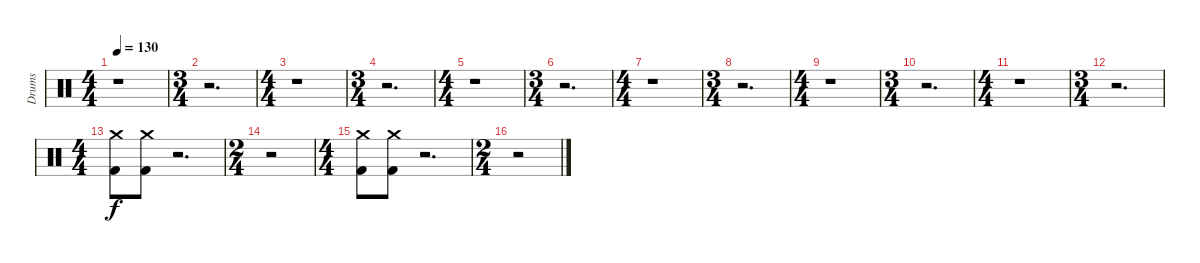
\track ("Drums" "Drums") {instrument percussion}
\staff {score}
\articulation defaults
\ts (4 4)
\tempo 130
\clef neutral
\ks c
r.1{dy f} |
\ts (3 4)
r.2{d} |
\ts (4 4)
r.1 |
\ts (3 4)
r.2{d} |
\ts (4 4)
r.1 |
\ts (3 4)
r.2{d} |
\ts (4 4)
r.1 |
\ts (3 4)
r.2{d} |
\ts (4 4)
r.1 |
\ts (3 4)
r.2{d} |
\ts (4 4)
r.1 |
\ts (3 4)
r.2{d} |
\ts (4 4)
("Kick (hit) 2" "Crash medium (hit)").8 ("Kick (hit) 2" "Crash medium (hit)").8 r.2{d} |
\ts (2 4)
r.2 |
\ts (4 4)
("Kick (hit) 2" "Crash medium (hit)").8 ("Kick (hit) 2" "Crash medium (hit)").8 r.2{d} |
\ts (2 4)
r.2
